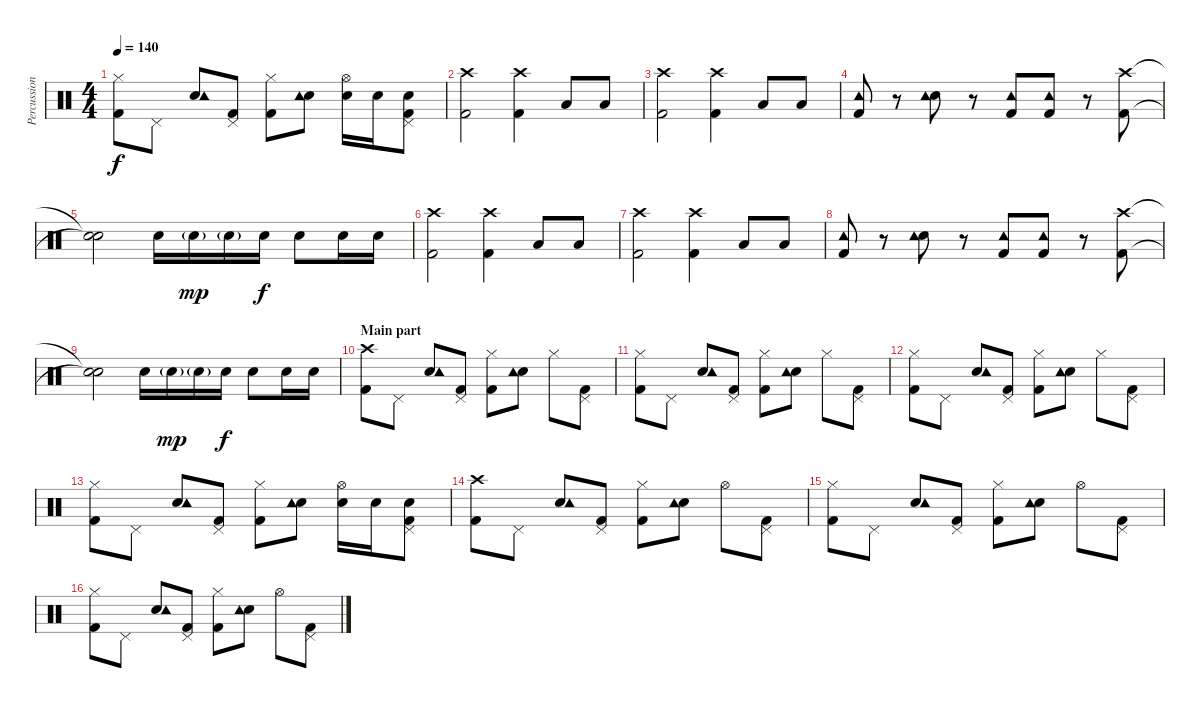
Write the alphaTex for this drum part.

\track ("Percussion" "Percussion") {instrument percussion}
\staff {score}
\articulation defaults
\ts (4 4)
\tempo 140
\clef neutral
\ks c
("Kick (hit) 2" "Hi-Hat (closed)").8{dy f} "Pedal Hi-Hat (hit)".8 ("Electric Snare (hit)" "Tambourine (hit)").8 ("Kick (hit) 2" "Pedal Hi-Hat (hit)").8 ("Kick (hit) 2" "Hi-Hat (closed)").8 ("Electric Snare (hit)" "Tambourine (hit)").8 ("Electric Snare (hit)" "Hi-Hat (open)").16 "Electric Snare (hit)".16 ("Kick (hit) 2" "Electric Snare (hit)" "Pedal Hi-Hat (hit)").8 |
("Kick (hit) 2" "Crash high (hit)").2 ("Kick (hit) 2" "Crash high (hit)").4 "Low Tom (hit)".8 "Low Tom (hit)".8 |
("Kick (hit) 2" "Crash high (hit)").2 ("Kick (hit) 2" "Crash high (hit)").4 "Low Floor Tom (hit)".8 "Low Tom (hit)".8 |
("Kick (hit) 2" "Tambourine (hit)").8 r.8 ("Electric Snare (hit)" "Tambourine (hit)").8 r.8 ("Kick (hit) 2" "Tambourine (hit)").8 ("Kick (hit) 2" "Tambourine (hit)").8 r.8 ("Kick (hit) 2" "Crash high (hit)").8 |
("Snare (hit)"{t} "Snare (hit)"{t}).2 "Electric Snare (hit)".16 "Electric Snare (hit)"{g}.16{dy mp} "Electric Snare (hit)"{g}.16 "Electric Snare (hit)".16{dy f} "Electric Snare (hit)".8 "Electric Snare (hit)".16 "Electric Snare (hit)".16 |
("Kick (hit) 2" "Crash high (hit)").2 ("Kick (hit) 2" "Crash high (hit)").4 "Low Tom (hit)".8 "Low Tom (hit)".8 |
("Kick (hit) 2" "Crash high (hit)").2 ("Kick (hit) 2" "Crash high (hit)").4 "Low Floor Tom (hit)".8 "Low Tom (hit)".8 |
("Kick (hit) 2" "Tambourine (hit)").8 r.8 ("Electric Snare (hit)" "Tambourine (hit)").8 r.8 ("Kick (hit) 2" "Tambourine (hit)").8 ("Kick (hit) 2" "Tambourine (hit)").8 r.8 ("Kick (hit) 2" "Crash high (hit)").8 |
("Snare (hit)"{t} "Snare (hit)"{t}).2 "Electric Snare (hit)".16 "Electric Snare (hit)"{g}.16{dy mp} "Electric Snare (hit)"{g}.16 "Electric Snare (hit)".16{dy f} "Electric Snare (hit)".8 "Electric Snare (hit)".16 "Electric Snare (hit)".16 |
\section ("" "Main part")
("Kick (hit) 2" "Crash high (hit)").8 "Pedal Hi-Hat (hit)".8 ("Electric Snare (hit)" "Tambourine (hit)").8 ("Kick (hit) 2" "Pedal Hi-Hat (hit)").8 ("Kick (hit) 2" "Hi-Hat (closed)").8 ("Electric Snare (hit)" "Tambourine (hit)").8 "Hi-Hat (closed)".8 ("Kick (hit) 2" "Pedal Hi-Hat (hit)").8 |
("Kick (hit) 2" "Hi-Hat (closed)").8 "Pedal Hi-Hat (hit)".8 ("Electric Snare (hit)" "Tambourine (hit)").8 ("Kick (hit) 2" "Pedal Hi-Hat (hit)").8 ("Kick (hit) 2" "Hi-Hat (closed)").8 ("Electric Snare (hit)" "Tambourine (hit)").8 "Hi-Hat (closed)".8 ("Kick (hit) 2" "Pedal Hi-Hat (hit)").8 |
("Kick (hit) 2" "Hi-Hat (closed)").8 "Pedal Hi-Hat (hit)".8 ("Electric Snare (hit)" "Tambourine (hit)").8 ("Kick (hit) 2" "Pedal Hi-Hat (hit)").8 ("Kick (hit) 2" "Hi-Hat (closed)").8 ("Electric Snare (hit)" "Tambourine (hit)").8 "Hi-Hat (closed)".8 ("Kick (hit) 2" "Pedal Hi-Hat (hit)").8 |
("Kick (hit) 2" "Hi-Hat (closed)").8 "Pedal Hi-Hat (hit)".8 ("Electric Snare (hit)" "Tambourine (hit)").8 ("Kick (hit) 2" "Pedal Hi-Hat (hit)").8 ("Kick (hit) 2" "Hi-Hat (closed)").8 ("Electric Snare (hit)" "Tambourine (hit)").8 ("Electric Snare (hit)" "Hi-Hat (open)").16 "Electric Snare (hit)".16 ("Kick (hit) 2" "Electric Snare (hit)" "Pedal Hi-Hat (hit)").8 |
("Kick (hit) 2" "Crash high (hit)").8 "Pedal Hi-Hat (hit)".8 ("Electric Snare (hit)" "Tambourine (hit)").8 ("Kick (hit) 2" "Pedal Hi-Hat (hit)").8 ("Kick (hit) 2" "Hi-Hat (closed)").8 ("Electric Snare (hit)" "Tambourine (hit)").8 "Hi-Hat (open)".8 ("Kick (hit) 2" "Pedal Hi-Hat (hit)").8 |
("Kick (hit) 2" "Hi-Hat (closed)").8 "Pedal Hi-Hat (hit)".8 ("Electric Snare (hit)" "Tambourine (hit)").8 ("Kick (hit) 2" "Pedal Hi-Hat (hit)").8 ("Kick (hit) 2" "Hi-Hat (closed)").8 ("Electric Snare (hit)" "Tambourine (hit)").8 "Hi-Hat (open)".8 ("Kick (hit) 2" "Pedal Hi-Hat (hit)").8 |
("Kick (hit) 2" "Hi-Hat (closed)").8 "Pedal Hi-Hat (hit)".8 ("Electric Snare (hit)" "Tambourine (hit)").8 ("Kick (hit) 2" "Pedal Hi-Hat (hit)").8 ("Kick (hit) 2" "Hi-Hat (closed)").8 ("Electric Snare (hit)" "Tambourine (hit)").8 "Hi-Hat (open)".8 ("Kick (hit) 2" "Pedal Hi-Hat (hit)").8
